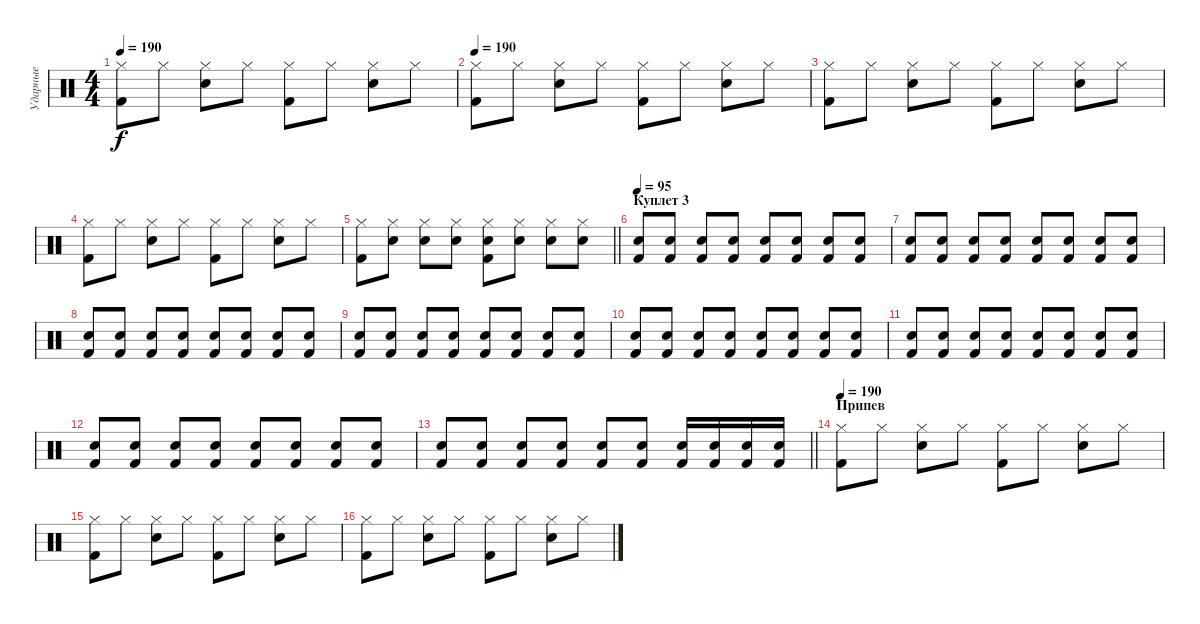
\track ("Ударные" "Ударные") {instrument percussion}
\staff {score}
\articulation defaults
\ts (4 4)
\tempo 190
\clef neutral
\ks c
("Hi-Hat (closed)" "Kick (hit) 2").8{dy f} "Hi-Hat (closed)".8 ("Hi-Hat (closed)" "Snare (hit) 2").8 "Hi-Hat (closed)".8 ("Hi-Hat (closed)" "Kick (hit) 2").8 "Hi-Hat (closed)".8 ("Hi-Hat (closed)" "Snare (hit) 2").8 "Hi-Hat (closed)".8 |
\tempo 190
("Hi-Hat (closed)" "Kick (hit) 2").8 "Hi-Hat (closed)".8 ("Hi-Hat (closed)" "Snare (hit) 2").8 "Hi-Hat (closed)".8 ("Hi-Hat (closed)" "Kick (hit) 2").8 "Hi-Hat (closed)".8 ("Hi-Hat (closed)" "Snare (hit) 2").8 "Hi-Hat (closed)".8 |
("Hi-Hat (closed)" "Kick (hit) 2").8 "Hi-Hat (closed)".8 ("Hi-Hat (closed)" "Snare (hit) 2").8 "Hi-Hat (closed)".8 ("Hi-Hat (closed)" "Kick (hit) 2").8 "Hi-Hat (closed)".8 ("Hi-Hat (closed)" "Snare (hit) 2").8 "Hi-Hat (closed)".8 |
("Hi-Hat (closed)" "Kick (hit) 2").8 "Hi-Hat (closed)".8 ("Hi-Hat (closed)" "Snare (hit) 2").8 "Hi-Hat (closed)".8 ("Hi-Hat (closed)" "Kick (hit) 2").8 "Hi-Hat (closed)".8 ("Hi-Hat (closed)" "Snare (hit) 2").8 "Hi-Hat (closed)".8 |
\barLineRight lightlight
("Hi-Hat (closed)" "Kick (hit) 2").8 ("Hi-Hat (closed)" "Snare (hit) 2").8 ("Hi-Hat (closed)" "Snare (hit) 2").8 ("Hi-Hat (closed)" "Snare (hit) 2").8 ("Hi-Hat (closed)" "Snare (hit) 2" "Kick (hit) 2").8 ("Hi-Hat (closed)" "Snare (hit) 2").8 ("Hi-Hat (closed)" "Snare (hit) 2").8 ("Hi-Hat (closed)" "Snare (hit) 2").8 |
\section ("" "Куплет 3")
\tempo 95
("Snare (hit) 2" "Kick (hit) 2").8 ("Snare (hit) 2" "Kick (hit) 2").8 ("Snare (hit) 2" "Kick (hit) 2").8 ("Snare (hit) 2" "Kick (hit) 2").8 ("Snare (hit) 2" "Kick (hit) 2").8 ("Snare (hit) 2" "Kick (hit) 2").8 ("Snare (hit) 2" "Kick (hit) 2").8 ("Snare (hit) 2" "Kick (hit) 2").8 |
("Snare (hit) 2" "Kick (hit) 2").8 ("Snare (hit) 2" "Kick (hit) 2").8 ("Snare (hit) 2" "Kick (hit) 2").8 ("Snare (hit) 2" "Kick (hit) 2").8 ("Snare (hit) 2" "Kick (hit) 2").8 ("Snare (hit) 2" "Kick (hit) 2").8 ("Snare (hit) 2" "Kick (hit) 2").8 ("Snare (hit) 2" "Kick (hit) 2").8 |
("Snare (hit) 2" "Kick (hit) 2").8 ("Snare (hit) 2" "Kick (hit) 2").8 ("Snare (hit) 2" "Kick (hit) 2").8 ("Snare (hit) 2" "Kick (hit) 2").8 ("Snare (hit) 2" "Kick (hit) 2").8 ("Snare (hit) 2" "Kick (hit) 2").8 ("Snare (hit) 2" "Kick (hit) 2").8 ("Snare (hit) 2" "Kick (hit) 2").8 |
("Snare (hit) 2" "Kick (hit) 2").8 ("Snare (hit) 2" "Kick (hit) 2").8 ("Snare (hit) 2" "Kick (hit) 2").8 ("Snare (hit) 2" "Kick (hit) 2").8 ("Snare (hit) 2" "Kick (hit) 2").8 ("Snare (hit) 2" "Kick (hit) 2").8 ("Snare (hit) 2" "Kick (hit) 2").8 ("Snare (hit) 2" "Kick (hit) 2").8 |
("Snare (hit) 2" "Kick (hit) 2").8 ("Snare (hit) 2" "Kick (hit) 2").8 ("Snare (hit) 2" "Kick (hit) 2").8 ("Snare (hit) 2" "Kick (hit) 2").8 ("Snare (hit) 2" "Kick (hit) 2").8 ("Snare (hit) 2" "Kick (hit) 2").8 ("Snare (hit) 2" "Kick (hit) 2").8 ("Snare (hit) 2" "Kick (hit) 2").8 |
("Snare (hit) 2" "Kick (hit) 2").8 ("Snare (hit) 2" "Kick (hit) 2").8 ("Snare (hit) 2" "Kick (hit) 2").8 ("Snare (hit) 2" "Kick (hit) 2").8 ("Snare (hit) 2" "Kick (hit) 2").8 ("Snare (hit) 2" "Kick (hit) 2").8 ("Snare (hit) 2" "Kick (hit) 2").8 ("Snare (hit) 2" "Kick (hit) 2").8 |
("Snare (hit) 2" "Kick (hit) 2").8 ("Snare (hit) 2" "Kick (hit) 2").8 ("Snare (hit) 2" "Kick (hit) 2").8 ("Snare (hit) 2" "Kick (hit) 2").8 ("Snare (hit) 2" "Kick (hit) 2").8 ("Snare (hit) 2" "Kick (hit) 2").8 ("Snare (hit) 2" "Kick (hit) 2").8 ("Snare (hit) 2" "Kick (hit) 2").8 |
\barLineRight lightlight
("Snare (hit) 2" "Kick (hit) 2").8 ("Snare (hit) 2" "Kick (hit) 2").8 ("Snare (hit) 2" "Kick (hit) 2").8 ("Snare (hit) 2" "Kick (hit) 2").8 ("Snare (hit) 2" "Kick (hit) 2").8 ("Snare (hit) 2" "Kick (hit) 2").8 ("Snare (hit) 2" "Kick (hit) 2").16 ("Snare (hit) 2" "Kick (hit) 2").16 ("Snare (hit) 2" "Kick (hit) 2").16 ("Snare (hit) 2" "Kick (hit) 2").16 |
\section ("" "Припев")
\tempo 190
("Hi-Hat (closed)" "Kick (hit) 2").8 "Hi-Hat (closed)".8 ("Hi-Hat (closed)" "Snare (hit) 2").8 "Hi-Hat (closed)".8 ("Hi-Hat (closed)" "Kick (hit) 2").8 "Hi-Hat (closed)".8 ("Hi-Hat (closed)" "Snare (hit) 2").8 "Hi-Hat (closed)".8 |
("Hi-Hat (closed)" "Kick (hit) 2").8 "Hi-Hat (closed)".8 ("Hi-Hat (closed)" "Snare (hit) 2").8 "Hi-Hat (closed)".8 ("Hi-Hat (closed)" "Kick (hit) 2").8 "Hi-Hat (closed)".8 ("Hi-Hat (closed)" "Snare (hit) 2").8 "Hi-Hat (closed)".8 |
("Hi-Hat (closed)" "Kick (hit) 2").8 "Hi-Hat (closed)".8 ("Hi-Hat (closed)" "Snare (hit) 2").8 "Hi-Hat (closed)".8 ("Hi-Hat (closed)" "Kick (hit) 2").8 "Hi-Hat (closed)".8 ("Hi-Hat (closed)" "Snare (hit) 2").8 "Hi-Hat (closed)".8
